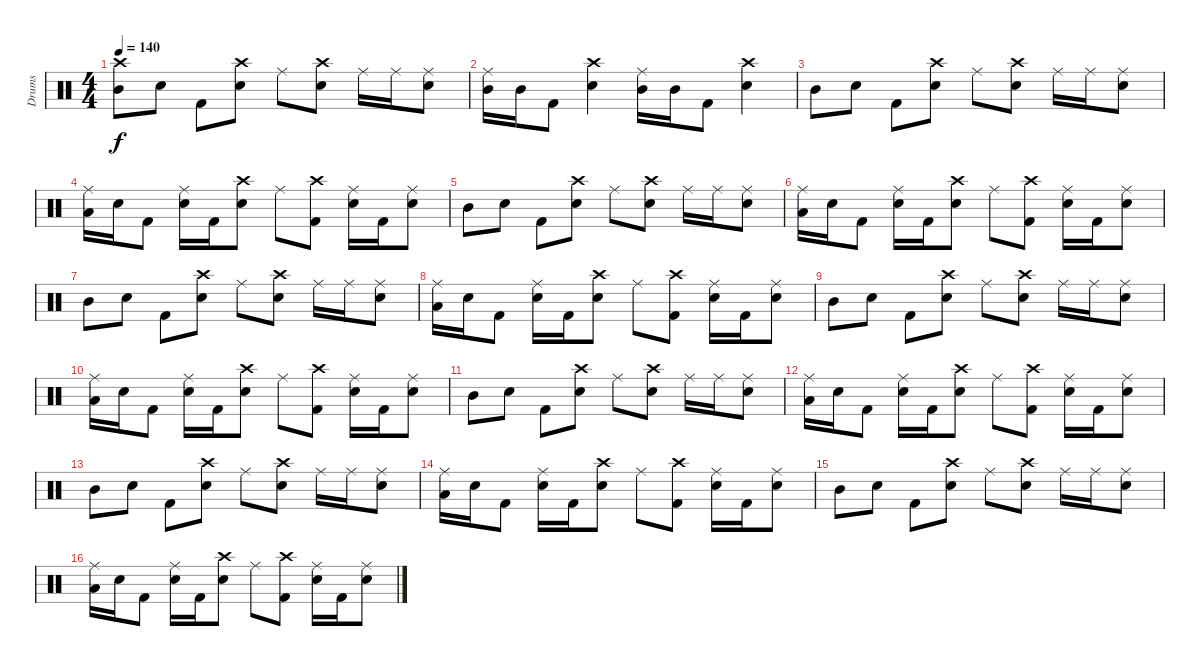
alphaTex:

\track ("Drums" "Drums") {instrument percussion}
\staff {score}
\articulation defaults
\ts (4 4)
\tempo 140
\clef neutral
\ks c
("Crash high (hit)" "Mid Tom (hit)").8{dy f} "Snare (hit) 2".8 "Kick (hit) 2".8 ("Crash high (hit)" "Snare (hit) 2").8 "Ride (middle)".8 ("Crash high (hit)" "Snare (hit) 2").8 "Ride (middle)".16 "Ride (middle)".16 ("Ride (middle)" "Snare (hit) 2").8 |
("Ride (middle)" "Mid Tom (hit)").16 "Mid Tom (hit)".16 "Kick (hit) 2".8 ("Crash high (hit)" "Snare (hit) 2").4 ("Ride (middle)" "Mid Tom (hit)").16 "Mid Tom (hit)".16 "Kick (hit) 2".8 ("Crash high (hit)" "Snare (hit) 2").4 |
"Mid Tom (hit)".8 "Snare (hit) 2".8 "Kick (hit) 2".8 ("Crash high (hit)" "Snare (hit) 2").8 "Ride (middle)".8 ("Crash high (hit)" "Snare (hit) 2").8 "Ride (middle)".16 "Ride (middle)".16 ("Ride (middle)" "Snare (hit) 2").8 |
("Ride (middle)" "Low Floor Tom (hit)").16 "Snare (hit) 2".16 "Kick (hit) 2".8 ("Ride (middle)" "Snare (hit) 2").16 "Kick (hit) 2".16 ("Crash high (hit)" "Snare (hit) 2").8 "Ride (middle)".8 ("Crash high (hit)" "Kick (hit) 2").8 ("Ride (middle)" "Snare (hit) 2").16 "Kick (hit) 2".16 ("Ride (middle)" "Snare (hit) 2").8 |
"Mid Tom (hit)".8 "Snare (hit) 2".8 "Kick (hit) 2".8 ("Crash high (hit)" "Snare (hit) 2").8 "Ride (middle)".8 ("Crash high (hit)" "Snare (hit) 2").8 "Ride (middle)".16 "Ride (middle)".16 ("Ride (middle)" "Snare (hit) 2").8 |
("Ride (middle)" "Low Floor Tom (hit)").16 "Snare (hit) 2".16 "Kick (hit) 2".8 ("Ride (middle)" "Snare (hit) 2").16 "Kick (hit) 2".16 ("Crash high (hit)" "Snare (hit) 2").8 "Ride (middle)".8 ("Crash high (hit)" "Kick (hit) 2").8 ("Ride (middle)" "Snare (hit) 2").16 "Kick (hit) 2".16 ("Ride (middle)" "Snare (hit) 2").8 |
"Mid Tom (hit)".8 "Snare (hit) 2".8 "Kick (hit) 2".8 ("Crash high (hit)" "Snare (hit) 2").8 "Ride (middle)".8 ("Crash high (hit)" "Snare (hit) 2").8 "Ride (middle)".16 "Ride (middle)".16 ("Ride (middle)" "Snare (hit) 2").8 |
("Ride (middle)" "Low Floor Tom (hit)").16 "Snare (hit) 2".16 "Kick (hit) 2".8 ("Ride (middle)" "Snare (hit) 2").16 "Kick (hit) 2".16 ("Crash high (hit)" "Snare (hit) 2").8 "Ride (middle)".8 ("Crash high (hit)" "Kick (hit) 2").8 ("Ride (middle)" "Snare (hit) 2").16 "Kick (hit) 2".16 ("Ride (middle)" "Snare (hit) 2").8 |
"Mid Tom (hit)".8 "Snare (hit) 2".8 "Kick (hit) 2".8 ("Crash high (hit)" "Snare (hit) 2").8 "Ride (middle)".8 ("Crash high (hit)" "Snare (hit) 2").8 "Ride (middle)".16 "Ride (middle)".16 ("Ride (middle)" "Snare (hit) 2").8 |
("Ride (middle)" "Low Floor Tom (hit)").16 "Snare (hit) 2".16 "Kick (hit) 2".8 ("Ride (middle)" "Snare (hit) 2").16 "Kick (hit) 2".16 ("Crash high (hit)" "Snare (hit) 2").8 "Ride (middle)".8 ("Crash high (hit)" "Kick (hit) 2").8 ("Ride (middle)" "Snare (hit) 2").16 "Kick (hit) 2".16 ("Ride (middle)" "Snare (hit) 2").8 |
"Mid Tom (hit)".8 "Snare (hit) 2".8 "Kick (hit) 2".8 ("Crash high (hit)" "Snare (hit) 2").8 "Ride (middle)".8 ("Crash high (hit)" "Snare (hit) 2").8 "Ride (middle)".16 "Ride (middle)".16 ("Ride (middle)" "Snare (hit) 2").8 |
("Ride (middle)" "Low Floor Tom (hit)").16 "Snare (hit) 2".16 "Kick (hit) 2".8 ("Ride (middle)" "Snare (hit) 2").16 "Kick (hit) 2".16 ("Crash high (hit)" "Snare (hit) 2").8 "Ride (middle)".8 ("Crash high (hit)" "Kick (hit) 2").8 ("Ride (middle)" "Snare (hit) 2").16 "Kick (hit) 2".16 ("Ride (middle)" "Snare (hit) 2").8 |
"Mid Tom (hit)".8 "Snare (hit) 2".8 "Kick (hit) 2".8 ("Crash high (hit)" "Snare (hit) 2").8 "Ride (middle)".8 ("Crash high (hit)" "Snare (hit) 2").8 "Ride (middle)".16 "Ride (middle)".16 ("Ride (middle)" "Snare (hit) 2").8 |
("Ride (middle)" "Low Floor Tom (hit)").16 "Snare (hit) 2".16 "Kick (hit) 2".8 ("Ride (middle)" "Snare (hit) 2").16 "Kick (hit) 2".16 ("Crash high (hit)" "Snare (hit) 2").8 "Ride (middle)".8 ("Crash high (hit)" "Kick (hit) 2").8 ("Ride (middle)" "Snare (hit) 2").16 "Kick (hit) 2".16 ("Ride (middle)" "Snare (hit) 2").8 |
"Mid Tom (hit)".8 "Snare (hit) 2".8 "Kick (hit) 2".8 ("Crash high (hit)" "Snare (hit) 2").8 "Ride (middle)".8 ("Crash high (hit)" "Snare (hit) 2").8 "Ride (middle)".16 "Ride (middle)".16 ("Ride (middle)" "Snare (hit) 2").8 |
("Ride (middle)" "Low Floor Tom (hit)").16 "Snare (hit) 2".16 "Kick (hit) 2".8 ("Ride (middle)" "Snare (hit) 2").16 "Kick (hit) 2".16 ("Crash high (hit)" "Snare (hit) 2").8 "Ride (middle)".8 ("Crash high (hit)" "Kick (hit) 2").8 ("Ride (middle)" "Snare (hit) 2").16 "Kick (hit) 2".16 ("Ride (middle)" "Snare (hit) 2").8
